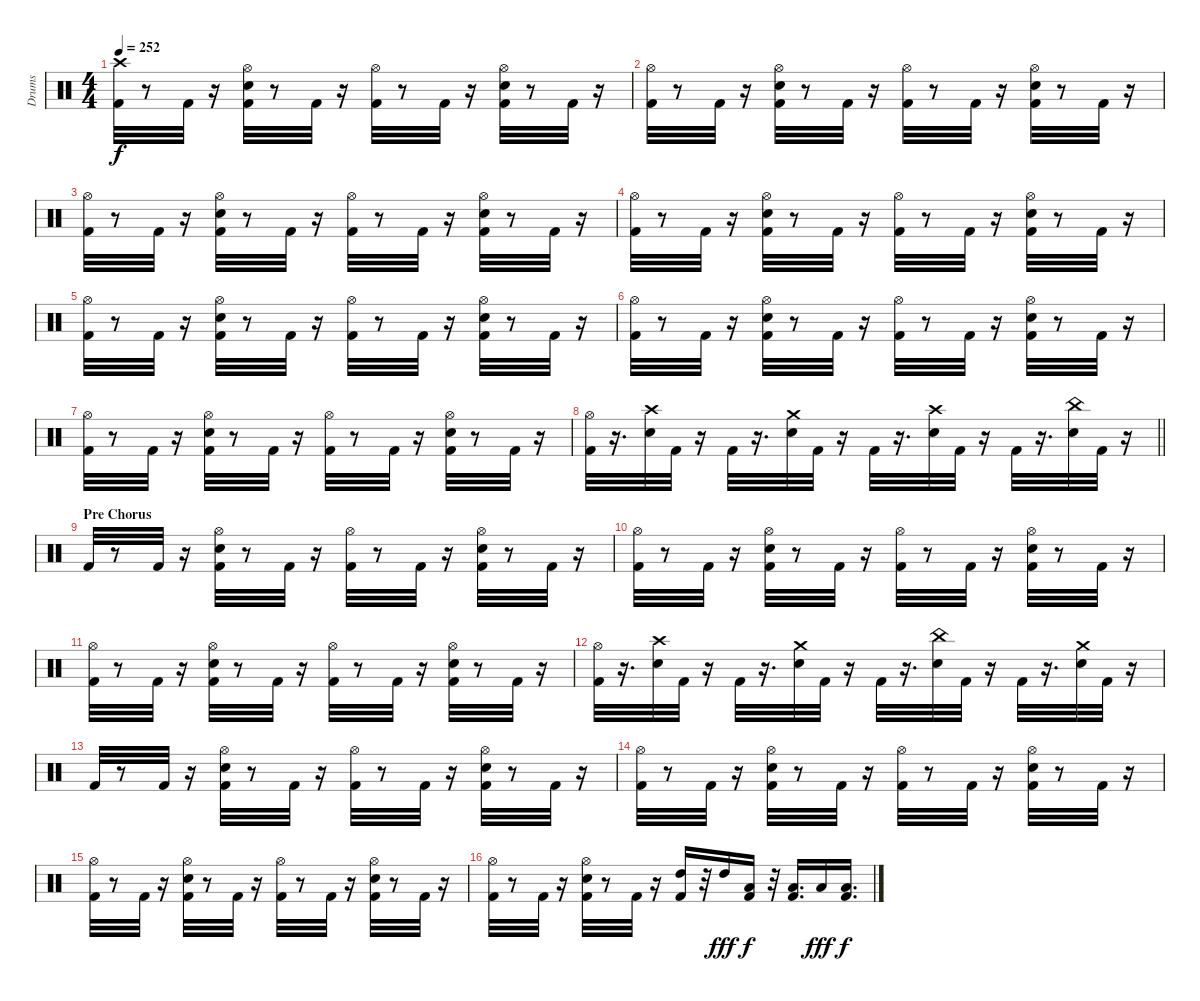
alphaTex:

\track ("Drums" "Drums") {instrument percussion}
\staff {score}
\articulation defaults
\ts (4 4)
\tempo 252
\clef neutral
\ks c
("Crash high (hit)" "Kick (hit) 2").32{dy f} r.8 "Kick (hit) 2".32 r.16 ("Snare (hit) 2" "Hi-Hat (open)" "Kick (hit) 2").32 r.8 "Kick (hit) 2".32 r.16 ("Hi-Hat (open)" "Kick (hit) 2").32 r.8 "Kick (hit) 2".32 r.16 ("Kick (hit) 2" "Hi-Hat (open)" "Snare (hit) 2").32 r.8 "Kick (hit) 2".32 r.16 |
("Kick (hit) 2" "Hi-Hat (open)").32 r.8 "Kick (hit) 2".32 r.16 ("Kick (hit) 2" "Hi-Hat (open)" "Snare (hit) 2").32 r.8 "Kick (hit) 2".32 r.16 ("Hi-Hat (open)" "Kick (hit) 2").32 r.8 "Kick (hit) 2".32 r.16 ("Snare (hit) 2" "Kick (hit) 2" "Hi-Hat (open)").32 r.8 "Kick (hit) 2".32 r.16 |
("Hi-Hat (open)" "Kick (hit) 2").32 r.8 "Kick (hit) 2".32 r.16 ("Snare (hit) 2" "Hi-Hat (open)" "Kick (hit) 2").32 r.8 "Kick (hit) 2".32 r.16 ("Kick (hit) 2" "Hi-Hat (open)").32 r.8 "Kick (hit) 2".32 r.16 ("Snare (hit) 2" "Hi-Hat (open)" "Kick (hit) 2").32 r.8 "Kick (hit) 2".32 r.16 |
("Hi-Hat (open)" "Kick (hit) 2").32 r.8 "Kick (hit) 2".32 r.16 ("Snare (hit) 2" "Kick (hit) 2" "Hi-Hat (open)").32 r.8 "Kick (hit) 2".32 r.16 ("Kick (hit) 2" "Hi-Hat (open)").32 r.8 "Kick (hit) 2".32 r.16 ("Snare (hit) 2" "Kick (hit) 2" "Hi-Hat (open)").32 r.8 "Kick (hit) 2".32 r.16 |
("Kick (hit) 2" "Hi-Hat (open)").32 r.8 "Kick (hit) 2".32 r.16 ("Snare (hit) 2" "Kick (hit) 2" "Hi-Hat (open)").32 r.8 "Kick (hit) 2".32 r.16 ("Kick (hit) 2" "Hi-Hat (open)").32 r.8 "Kick (hit) 2".32 r.16 ("Snare (hit) 2" "Hi-Hat (open)" "Kick (hit) 2").32 r.8 "Kick (hit) 2".32 r.16 |
("Hi-Hat (open)" "Kick (hit) 2").32 r.8 "Kick (hit) 2".32 r.16 ("Snare (hit) 2" "Kick (hit) 2" "Hi-Hat (open)").32 r.8 "Kick (hit) 2".32 r.16 ("Kick (hit) 2" "Hi-Hat (open)").32 r.8 "Kick (hit) 2".32 r.16 ("Hi-Hat (open)" "Kick (hit) 2" "Snare (hit) 2").32 r.8 "Kick (hit) 2".32 r.16 |
("Hi-Hat (open)" "Kick (hit) 2").32 r.8 "Kick (hit) 2".32 r.16 ("Snare (hit) 2" "Hi-Hat (open)" "Kick (hit) 2").32 r.8 "Kick (hit) 2".32 r.16 ("Hi-Hat (open)" "Kick (hit) 2").32 r.8 "Kick (hit) 2".32 r.16 ("Kick (hit) 2" "Snare (hit) 2" "Hi-Hat (open)").32 r.8 "Kick (hit) 2".32 r.16 |
\barLineRight lightlight
("Hi-Hat (open)" "Kick (hit) 2").32 r.16{d} ("Crash high (hit)" "Snare (hit) 2").32 "Kick (hit) 2".32 r.16 "Kick (hit) 2".32 r.16{d} ("Snare (hit) 2" "Crash medium (hit)").32 "Kick (hit) 2".32 r.16 "Kick (hit) 2".32 r.16{d} ("Crash high (hit)" "Snare (hit) 2").32 "Kick (hit) 2".32 r.16 "Kick (hit) 2".32 r.16{d} ("China (hit)" "Snare (hit) 2").32 "Kick (hit) 2".32 r.16 |
\section ("" "Pre Chorus")
"Kick (hit) 2".32 r.8 "Kick (hit) 2".32 r.16 ("Hi-Hat (open)" "Snare (hit) 2" "Kick (hit) 2").32 r.8 "Kick (hit) 2".32 r.16 ("Hi-Hat (open)" "Kick (hit) 2").32 r.8 "Kick (hit) 2".32 r.16 ("Hi-Hat (open)" "Snare (hit) 2" "Kick (hit) 2").32 r.8 "Kick (hit) 2".32 r.16 |
("Hi-Hat (open)" "Kick (hit) 2").32 r.8 "Kick (hit) 2".32 r.16 ("Kick (hit) 2" "Snare (hit) 2" "Hi-Hat (open)").32 r.8 "Kick (hit) 2".32 r.16 ("Hi-Hat (open)" "Kick (hit) 2").32 r.8 "Kick (hit) 2".32 r.16 ("Kick (hit) 2" "Snare (hit) 2" "Hi-Hat (open)").32 r.8 "Kick (hit) 2".32 r.16 |
("Hi-Hat (open)" "Kick (hit) 2").32 r.8 "Kick (hit) 2".32 r.16 ("Hi-Hat (open)" "Snare (hit) 2" "Kick (hit) 2").32 r.8 "Kick (hit) 2".32 r.16 ("Hi-Hat (open)" "Kick (hit) 2").32 r.8 "Kick (hit) 2".32 r.16 ("Kick (hit) 2" "Hi-Hat (open)" "Snare (hit) 2").32 r.8 "Kick (hit) 2".32 r.16 |
("Kick (hit) 2" "Hi-Hat (open)").32 r.16{d} ("Crash high (hit)" "Snare (hit) 2").32 "Kick (hit) 2".32 r.16 "Kick (hit) 2".32 r.16{d} ("Snare (hit) 2" "Crash medium (hit)").32 "Kick (hit) 2".32 r.16 "Kick (hit) 2".32 r.16{d} ("China (hit)" "Snare (hit) 2").32 "Kick (hit) 2".32 r.16 "Kick (hit) 2".32 r.16{d} ("Snare (hit) 2" "Crash medium (hit)").32 "Kick (hit) 2".32 r.16 |
"Kick (hit) 2".32 r.8 "Kick (hit) 2".32 r.16 ("Hi-Hat (open)" "Kick (hit) 2" "Snare (hit) 2").32 r.8 "Kick (hit) 2".32 r.16 ("Kick (hit) 2" "Hi-Hat (open)").32 r.8 "Kick (hit) 2".32 r.16 ("Hi-Hat (open)" "Kick (hit) 2" "Snare (hit) 2").32 r.8 "Kick (hit) 2".32 r.16 |
("Kick (hit) 2" "Hi-Hat (open)").32 r.8 "Kick (hit) 2".32 r.16 ("Hi-Hat (open)" "Kick (hit) 2" "Snare (hit) 2").32 r.8 "Kick (hit) 2".32 r.16 ("Hi-Hat (open)" "Kick (hit) 2").32 r.8 "Kick (hit) 2".32 r.16 ("Kick (hit) 2" "Hi-Hat (open)" "Snare (hit) 2").32 r.8 "Kick (hit) 2".32 r.16 |
("Hi-Hat (open)" "Kick (hit) 2").32 r.8 "Kick (hit) 2".32 r.16 ("Kick (hit) 2" "Hi-Hat (open)" "Snare (hit) 2").32 r.8 "Kick (hit) 2".32 r.16 ("Hi-Hat (open)" "Kick (hit) 2").32 r.8 "Kick (hit) 2".32 r.16 ("Snare (hit) 2" "Hi-Hat (open)" "Kick (hit) 2").32 r.8 "Kick (hit) 2".32 r.16 |
("Kick (hit) 2" "Hi-Hat (open)").32 r.8 "Kick (hit) 2".32 r.16 ("Snare (hit) 2" "Kick (hit) 2" "Hi-Hat (open)").32 r.8 "Kick (hit) 2".32 r.16 ("Kick (hit) 2" "High Tom (hit)").16 r.32 "High Tom (hit)".16{dy fff} ("Kick (hit) 2" "Low Tom (hit)").16{dy f} r.32 ("Kick (hit) 2" "Low Tom (hit)").16{d} "Low Floor Tom (hit)".16{dy fff} ("Kick (hit) 2" "Low Floor Tom (hit)").16{d dy f}
